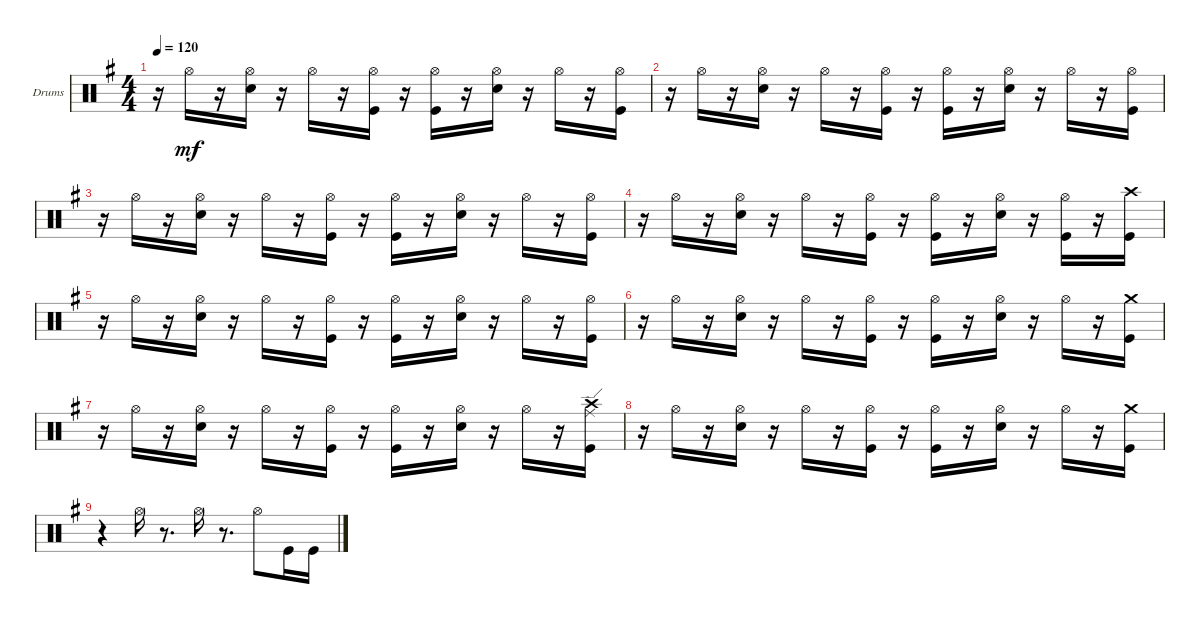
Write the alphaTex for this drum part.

\bracketExtendMode groupsimilarinstruments
\firstSystemTrackNameOrientation horizontal
\otherSystemsTrackNameOrientation horizontal
\track ("Drumkit" "Drums") {multiBarRest instrument percussion}
\staff {score}
\articulation defaults
\ts (4 4)
\tempo 120
\clef neutral
\scale
0.333333
\ks g
r.16{dy mf} "Hi-Hat (open)".16 r.16 ("Snare (hit) 2" "Hi-Hat (open)").16 r.16 "Hi-Hat (open)".16 r.16 ("Hi-Hat (open)" "Kick (hit)").16 r.16 ("Hi-Hat (open)" "Kick (hit)").16 r.16 ("Snare (hit) 2" "Hi-Hat (open)").16 r.16 "Hi-Hat (open)".16 r.16 ("Hi-Hat (open)" "Kick (hit)").16 |
\scale
0.333333 r.16 "Hi-Hat (open)".16 r.16 ("Hi-Hat (open)" "Snare (hit) 2").16 r.16 "Hi-Hat (open)".16 r.16 ("Kick (hit)" "Hi-Hat (open)").16 r.16 ("Kick (hit)" "Hi-Hat (open)").16 r.16 ("Snare (hit) 2" "Hi-Hat (open)").16 r.16 "Hi-Hat (open)".16 r.16 ("Hi-Hat (open)" "Kick (hit)").16 |
\scale
0.333333 r.16 "Hi-Hat (open)".16 r.16 ("Hi-Hat (open)" "Snare (hit) 2").16 r.16 "Hi-Hat (open)".16 r.16 ("Hi-Hat (open)" "Kick (hit)").16 r.16 ("Kick (hit)" "Hi-Hat (open)").16 r.16 ("Hi-Hat (open)" "Snare (hit) 2").16 r.16 "Hi-Hat (open)".16 r.16 ("Hi-Hat (open)" "Kick (hit)").16 |
\scale
0.333333 r.16 "Hi-Hat (open)".16 r.16 ("Snare (hit) 2" "Hi-Hat (open)").16 r.16 "Hi-Hat (open)".16 r.16 ("Kick (hit)" "Hi-Hat (open)").16 r.16 ("Kick (hit)" "Hi-Hat (open)").16 r.16 ("Snare (hit) 2" "Hi-Hat (open)").16 r.16 ("Kick (hit)" "Hi-Hat (open)").16 r.16 ("Kick (hit)" "Crash high (hit)").16 |
\scale
0.333333 r.16 "Hi-Hat (open)".16 r.16 ("Snare (hit) 2" "Hi-Hat (open)").16 r.16 "Hi-Hat (open)".16 r.16 ("Kick (hit)" "Hi-Hat (open)").16 r.16 ("Kick (hit)" "Hi-Hat (open)").16 r.16 ("Hi-Hat (open)" "Snare (hit) 2").16 r.16 "Hi-Hat (open)".16 r.16 ("Hi-Hat (open)" "Kick (hit)").16 |
\scale
0.333333 r.16 "Hi-Hat (open)".16 r.16 ("Snare (hit) 2" "Hi-Hat (open)").16 r.16 "Hi-Hat (open)".16 r.16 ("Hi-Hat (open)" "Kick (hit)").16 r.16 ("Kick (hit)" "Hi-Hat (open)").16 r.16 ("Hi-Hat (open)" "Snare (hit) 2").16 r.16 "Hi-Hat (open)".16 r.16 ("Crash medium (hit)" "Kick (hit)").16 |
\scale
0.333333 r.16 "Hi-Hat (open)".16 r.16 ("Hi-Hat (open)" "Snare (hit) 2").16 r.16 "Hi-Hat (open)".16 r.16 ("Hi-Hat (open)" "Kick (hit)").16 r.16 ("Kick (hit)" "Hi-Hat (open)").16 r.16 ("Hi-Hat (open)" "Snare (hit) 2").16 r.16 "Hi-Hat (open)".16 r.16 ("Kick (hit)" "Crash high (hit)" "Ride (edge)").16 |
r.16 "Hi-Hat (open)".16 r.16 ("Snare (hit) 2" "Hi-Hat (open)").16 r.16 "Hi-Hat (open)".16 r.16 ("Hi-Hat (open)" "Kick (hit)").16 r.16 ("Kick (hit)" "Hi-Hat (open)").16 r.16 ("Hi-Hat (open)" "Snare (hit) 2").16 r.16 "Hi-Hat (open)".16 r.16 ("Crash medium (hit)" "Kick (hit)").16 |
r.4 "Hi-Hat (open)".16 r.8{d} "Hi-Hat (open)".16 r.8{d} "Hi-Hat (open)".8 "Kick (hit)".16 "Kick (hit)".16
